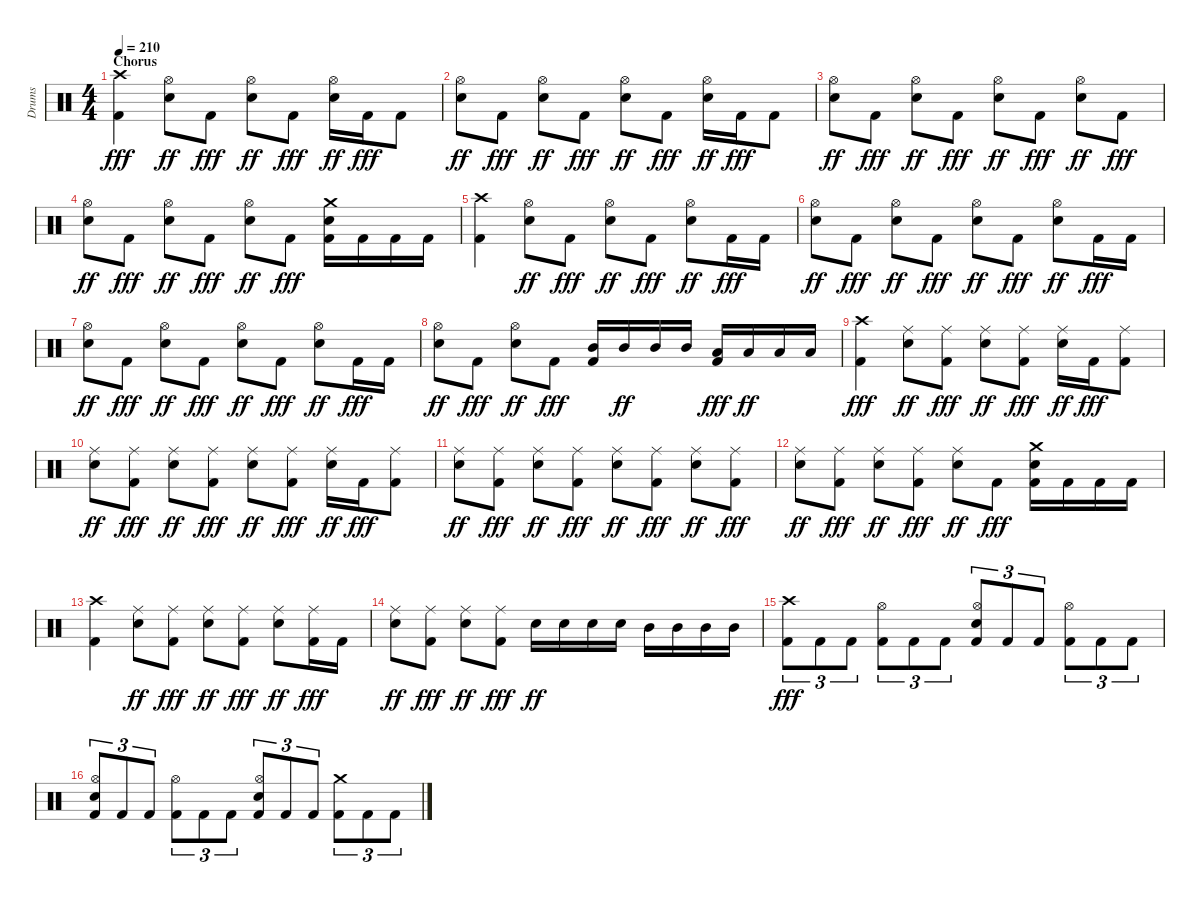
\track ("Drums" "Drums") {instrument percussion}
\staff {score}
\articulation defaults
\ts (4 4)
\section ("" "Chorus")
\tempo 210
\clef neutral
\ks c
("Crash high (hit)" "Kick (hit) 2").4{dy fff} ("Hi-Hat (open)" "Snare (hit) 2").8{dy ff} "Kick (hit) 2".8{dy fff} ("Hi-Hat (open)" "Snare (hit) 2").8{dy ff} "Kick (hit) 2".8{dy fff} ("Hi-Hat (open)" "Snare (hit) 2").16{dy ff} "Kick (hit) 2".16{dy fff} "Kick (hit) 2".8 |
("Hi-Hat (open)" "Snare (hit) 2").8{dy ff} "Kick (hit) 2".8{dy fff} ("Hi-Hat (open)" "Snare (hit) 2").8{dy ff} "Kick (hit) 2".8{dy fff} ("Hi-Hat (open)" "Snare (hit) 2").8{dy ff} "Kick (hit) 2".8{dy fff} ("Hi-Hat (open)" "Snare (hit) 2").16{dy ff} "Kick (hit) 2".16{dy fff} "Kick (hit) 2".8 |
("Hi-Hat (open)" "Snare (hit) 2").8{dy ff} "Kick (hit) 2".8{dy fff} ("Hi-Hat (open)" "Snare (hit) 2").8{dy ff} "Kick (hit) 2".8{dy fff} ("Hi-Hat (open)" "Snare (hit) 2").8{dy ff} "Kick (hit) 2".8{dy fff} ("Hi-Hat (open)" "Snare (hit) 2").8{dy ff} "Kick (hit) 2".8{dy fff} |
("Hi-Hat (open)" "Snare (hit) 2").8{dy ff} "Kick (hit) 2".8{dy fff} ("Hi-Hat (open)" "Snare (hit) 2").8{dy ff} "Kick (hit) 2".8{dy fff} ("Hi-Hat (open)" "Snare (hit) 2").8{dy ff} "Kick (hit) 2".8{dy fff} ("Crash medium (hit)" "Snare (hit) 2" "Kick (hit) 2").16 "Kick (hit) 2".16 "Kick (hit) 2".16 "Kick (hit) 2".16 |
("Crash high (hit)" "Kick (hit) 2").4 ("Hi-Hat (open)" "Snare (hit) 2").8{dy ff} "Kick (hit) 2".8{dy fff} ("Hi-Hat (open)" "Snare (hit) 2").8{dy ff} "Kick (hit) 2".8{dy fff} ("Hi-Hat (open)" "Snare (hit) 2").8{dy ff} "Kick (hit) 2".16{dy fff} "Kick (hit) 2".16 |
("Hi-Hat (open)" "Snare (hit) 2").8{dy ff} "Kick (hit) 2".8{dy fff} ("Hi-Hat (open)" "Snare (hit) 2").8{dy ff} "Kick (hit) 2".8{dy fff} ("Hi-Hat (open)" "Snare (hit) 2").8{dy ff} "Kick (hit) 2".8{dy fff} ("Hi-Hat (open)" "Snare (hit) 2").8{dy ff} "Kick (hit) 2".16{dy fff} "Kick (hit) 2".16 |
("Hi-Hat (open)" "Snare (hit) 2").8{dy ff} "Kick (hit) 2".8{dy fff} ("Hi-Hat (open)" "Snare (hit) 2").8{dy ff} "Kick (hit) 2".8{dy fff} ("Hi-Hat (open)" "Snare (hit) 2").8{dy ff} "Kick (hit) 2".8{dy fff} ("Hi-Hat (open)" "Snare (hit) 2").8{dy ff} "Kick (hit) 2".16{dy fff} "Kick (hit) 2".16 |
("Hi-Hat (open)" "Snare (hit) 2").8{dy ff} "Kick (hit) 2".8{dy fff} ("Hi-Hat (open)" "Snare (hit) 2").8{dy ff} "Kick (hit) 2".8{dy fff} ("Mid Tom (hit)" "Kick (hit) 2").16 "Mid Tom (hit)".16{dy ff} "Mid Tom (hit)".16 "Mid Tom (hit)".16 ("Low Tom (hit)" "Kick (hit) 2").16{dy fff} "Low Tom (hit)".16{dy ff} "Low Tom (hit)".16 "Low Tom (hit)".16 |
("Crash high (hit)" "Kick (hit) 2").4{dy fff} ("Ride (middle)" "Snare (hit) 2").8{dy ff} ("Ride (middle)" "Kick (hit) 2").8{dy fff} ("Ride (middle)" "Snare (hit) 2").8{dy ff} ("Ride (middle)" "Kick (hit) 2").8{dy fff} ("Ride (middle)" "Snare (hit) 2").16{dy ff} "Kick (hit) 2".16{dy fff} ("Ride (middle)" "Kick (hit) 2").8 |
("Ride (middle)" "Snare (hit) 2").8{dy ff} ("Ride (middle)" "Kick (hit) 2").8{dy fff} ("Ride (middle)" "Snare (hit) 2").8{dy ff} ("Ride (middle)" "Kick (hit) 2").8{dy fff} ("Ride (middle)" "Snare (hit) 2").8{dy ff} ("Ride (middle)" "Kick (hit) 2").8{dy fff} ("Ride (middle)" "Snare (hit) 2").16{dy ff} "Kick (hit) 2".16{dy fff} ("Ride (middle)" "Kick (hit) 2").8 |
("Ride (middle)" "Snare (hit) 2").8{dy ff} ("Ride (middle)" "Kick (hit) 2").8{dy fff} ("Ride (middle)" "Snare (hit) 2").8{dy ff} ("Ride (middle)" "Kick (hit) 2").8{dy fff} ("Ride (middle)" "Snare (hit) 2").8{dy ff} ("Ride (middle)" "Kick (hit) 2").8{dy fff} ("Ride (middle)" "Snare (hit) 2").8{dy ff} ("Ride (middle)" "Kick (hit) 2").8{dy fff} |
("Ride (middle)" "Snare (hit) 2").8{dy ff} ("Ride (middle)" "Kick (hit) 2").8{dy fff} ("Ride (middle)" "Snare (hit) 2").8{dy ff} ("Ride (middle)" "Kick (hit) 2").8{dy fff} ("Ride (middle)" "Snare (hit) 2").8{dy ff} "Kick (hit) 2".8{dy fff} ("Crash medium (hit)" "Snare (hit) 2" "Kick (hit) 2").16 "Kick (hit) 2".16 "Kick (hit) 2".16 "Kick (hit) 2".16 |
("Crash high (hit)" "Kick (hit) 2").4 ("Ride (middle)" "Snare (hit) 2").8{dy ff} ("Ride (middle)" "Kick (hit) 2").8{dy fff} ("Ride (middle)" "Snare (hit) 2").8{dy ff} ("Ride (middle)" "Kick (hit) 2").8{dy fff} ("Ride (middle)" "Snare (hit) 2").8{dy ff} ("Ride (middle)" "Kick (hit) 2").16{dy fff} "Kick (hit) 2".16 |
("Ride (middle)" "Snare (hit) 2").8{dy ff} ("Ride (middle)" "Kick (hit) 2").8{dy fff} ("Ride (middle)" "Snare (hit) 2").8{dy ff} ("Ride (middle)" "Kick (hit) 2").8{dy fff} "Snare (hit) 2".16{dy ff} "Snare (hit) 2".16 "Snare (hit) 2".16 "Snare (hit) 2".16 "Mid Tom (hit)".16 "Mid Tom (hit)".16 "Mid Tom (hit)".16 "Mid Tom (hit)".16 |
("Crash high (hit)" "Kick (hit) 2").8{tu (3 2) dy fff} "Kick (hit) 2".8{tu (3 2)} "Kick (hit) 2".8{tu (3 2)} ("Hi-Hat (open)" "Kick (hit) 2").8{tu (3 2)} "Kick (hit) 2".8{tu (3 2)} "Kick (hit) 2".8{tu (3 2)} ("Hi-Hat (open)" "Snare (hit) 2" "Kick (hit) 2").8{tu (3 2)} "Kick (hit) 2".8{tu (3 2)} "Kick (hit) 2".8{tu (3 2)} ("Hi-Hat (open)" "Kick (hit) 2").8{tu (3 2)} "Kick (hit) 2".8{tu (3 2)} "Kick (hit) 2".8{tu (3 2)} |
("Hi-Hat (open)" "Snare (hit) 2" "Kick (hit) 2").8{tu (3 2)} "Kick (hit) 2".8{tu (3 2)} "Kick (hit) 2".8{tu (3 2)} ("Hi-Hat (open)" "Kick (hit) 2").8{tu (3 2)} "Kick (hit) 2".8{tu (3 2)} "Kick (hit) 2".8{tu (3 2)} ("Hi-Hat (open)" "Snare (hit) 2" "Kick (hit) 2").8{tu (3 2)} "Kick (hit) 2".8{tu (3 2)} "Kick (hit) 2".8{tu (3 2)} ("Crash medium (hit)" "Kick (hit) 2").8{tu (3 2)} "Kick (hit) 2".8{tu (3 2)} "Kick (hit) 2".8{tu (3 2)}
